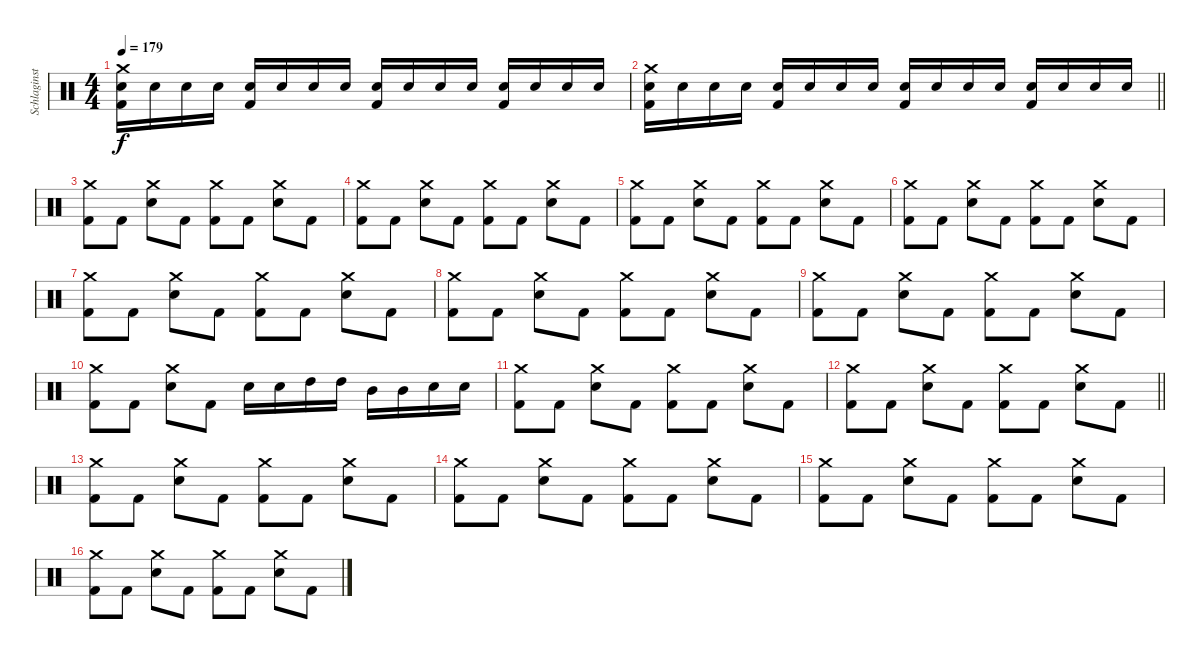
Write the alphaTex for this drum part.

\track ("Schlaginstrumente - Auswahl" "Schlaginst") {instrument percussion}
\staff {score}
\articulation defaults
\ts (4 4)
\tempo 179
\clef neutral
\ks c
("Crash medium (hit)" "Electric Snare (hit)" "Kick (hit) 2").16{dy f} "Electric Snare (hit)".16{volume 0} "Electric Snare (hit)".16{volume 13} "Electric Snare (hit)".16 ("Electric Snare (hit)" "Kick (hit) 2").16{volume 13} "Electric Snare (hit)".16 "Electric Snare (hit)".16 "Electric Snare (hit)".16 ("Electric Snare (hit)" "Kick (hit) 2").16{volume 13} "Electric Snare (hit)".16 "Electric Snare (hit)".16 "Electric Snare (hit)".16 ("Electric Snare (hit)" "Kick (hit) 2").16{volume 13} "Electric Snare (hit)".16 "Electric Snare (hit)".16 "Electric Snare (hit)".16 |
\barLineRight lightlight
("Crash medium (hit)" "Electric Snare (hit)" "Kick (hit) 2").16 "Electric Snare (hit)".16{volume 0} "Electric Snare (hit)".16{volume 13} "Electric Snare (hit)".16 ("Electric Snare (hit)" "Kick (hit) 2").16{volume 13} "Electric Snare (hit)".16 "Electric Snare (hit)".16 "Electric Snare (hit)".16 ("Electric Snare (hit)" "Kick (hit) 2").16{volume 13} "Electric Snare (hit)".16 "Electric Snare (hit)".16 "Electric Snare (hit)".16 ("Electric Snare (hit)" "Kick (hit) 2").16{volume 13} "Electric Snare (hit)".16 "Electric Snare (hit)".16 "Electric Snare (hit)".16 |
("Crash medium (hit)" "Kick (hit) 2").8 "Kick (hit) 2".8 ("Crash medium (hit)" "Electric Snare (hit)").8 "Kick (hit) 2".8 ("Crash medium (hit)" "Kick (hit) 2").8 "Kick (hit) 2".8 ("Crash medium (hit)" "Electric Snare (hit)").8 "Kick (hit) 2".8 |
("Crash medium (hit)" "Kick (hit) 2").8 "Kick (hit) 2".8 ("Crash medium (hit)" "Electric Snare (hit)").8 "Kick (hit) 2".8 ("Crash medium (hit)" "Kick (hit) 2").8 "Kick (hit) 2".8 ("Crash medium (hit)" "Electric Snare (hit)").8 "Kick (hit) 2".8 |
("Crash medium (hit)" "Kick (hit) 2").8 "Kick (hit) 2".8 ("Crash medium (hit)" "Electric Snare (hit)").8 "Kick (hit) 2".8 ("Crash medium (hit)" "Kick (hit) 2").8 "Kick (hit) 2".8 ("Crash medium (hit)" "Electric Snare (hit)").8 "Kick (hit) 2".8 |
("Crash medium (hit)" "Kick (hit) 2").8 "Kick (hit) 2".8 ("Crash medium (hit)" "Electric Snare (hit)").8 "Kick (hit) 2".8 ("Crash medium (hit)" "Kick (hit) 2").8 "Kick (hit) 2".8 ("Crash medium (hit)" "Electric Snare (hit)").8 "Kick (hit) 2".8 |
("Crash medium (hit)" "Kick (hit) 2").8 "Kick (hit) 2".8 ("Crash medium (hit)" "Electric Snare (hit)").8 "Kick (hit) 2".8 ("Crash medium (hit)" "Kick (hit) 2").8 "Kick (hit) 2".8 ("Crash medium (hit)" "Electric Snare (hit)").8 "Kick (hit) 2".8 |
("Crash medium (hit)" "Kick (hit) 2").8 "Kick (hit) 2".8 ("Crash medium (hit)" "Electric Snare (hit)").8 "Kick (hit) 2".8 ("Crash medium (hit)" "Kick (hit) 2").8 "Kick (hit) 2".8 ("Crash medium (hit)" "Electric Snare (hit)").8 "Kick (hit) 2".8 |
("Crash medium (hit)" "Kick (hit) 2").8 "Kick (hit) 2".8 ("Crash medium (hit)" "Electric Snare (hit)").8 "Kick (hit) 2".8 ("Crash medium (hit)" "Kick (hit) 2").8 "Kick (hit) 2".8 ("Crash medium (hit)" "Electric Snare (hit)").8 "Kick (hit) 2".8 |
("Crash medium (hit)" "Kick (hit) 2").8 "Kick (hit) 2".8 ("Crash medium (hit)" "Electric Snare (hit)").8 "Kick (hit) 2".8 "Electric Snare (hit)".16 "Electric Snare (hit)".16 "High Tom (hit)".16 "High Tom (hit)".16 "Mid Tom (hit)".16 "Mid Tom (hit)".16 "Electric Snare (hit)".16 "Electric Snare (hit)".16 |
("Crash medium (hit)" "Kick (hit) 2").8 "Kick (hit) 2".8 ("Crash medium (hit)" "Electric Snare (hit)").8 "Kick (hit) 2".8 ("Crash medium (hit)" "Kick (hit) 2").8 "Kick (hit) 2".8 ("Crash medium (hit)" "Electric Snare (hit)").8 "Kick (hit) 2".8 |
\barLineRight lightlight
("Crash medium (hit)" "Kick (hit) 2").8 "Kick (hit) 2".8 ("Crash medium (hit)" "Electric Snare (hit)").8 "Kick (hit) 2".8 ("Crash medium (hit)" "Kick (hit) 2").8 "Kick (hit) 2".8 ("Crash medium (hit)" "Electric Snare (hit)").8 "Kick (hit) 2".8 |
\section ("" "")
("Crash medium (hit)" "Kick (hit) 2").8 "Kick (hit) 2".8 ("Crash medium (hit)" "Electric Snare (hit)").8 "Kick (hit) 2".8 ("Crash medium (hit)" "Kick (hit) 2").8 "Kick (hit) 2".8 ("Crash medium (hit)" "Electric Snare (hit)").8 "Kick (hit) 2".8 |
("Crash medium (hit)" "Kick (hit) 2").8 "Kick (hit) 2".8 ("Crash medium (hit)" "Electric Snare (hit)").8 "Kick (hit) 2".8 ("Crash medium (hit)" "Kick (hit) 2").8 "Kick (hit) 2".8 ("Crash medium (hit)" "Electric Snare (hit)").8 "Kick (hit) 2".8 |
("Crash medium (hit)" "Kick (hit) 2").8 "Kick (hit) 2".8 ("Crash medium (hit)" "Electric Snare (hit)").8 "Kick (hit) 2".8 ("Crash medium (hit)" "Kick (hit) 2").8 "Kick (hit) 2".8 ("Crash medium (hit)" "Electric Snare (hit)").8 "Kick (hit) 2".8 |
("Crash medium (hit)" "Kick (hit) 2").8 "Kick (hit) 2".8 ("Crash medium (hit)" "Electric Snare (hit)").8 "Kick (hit) 2".8 ("Crash medium (hit)" "Kick (hit) 2").8 "Kick (hit) 2".8 ("Crash medium (hit)" "Electric Snare (hit)").8 "Kick (hit) 2".8
